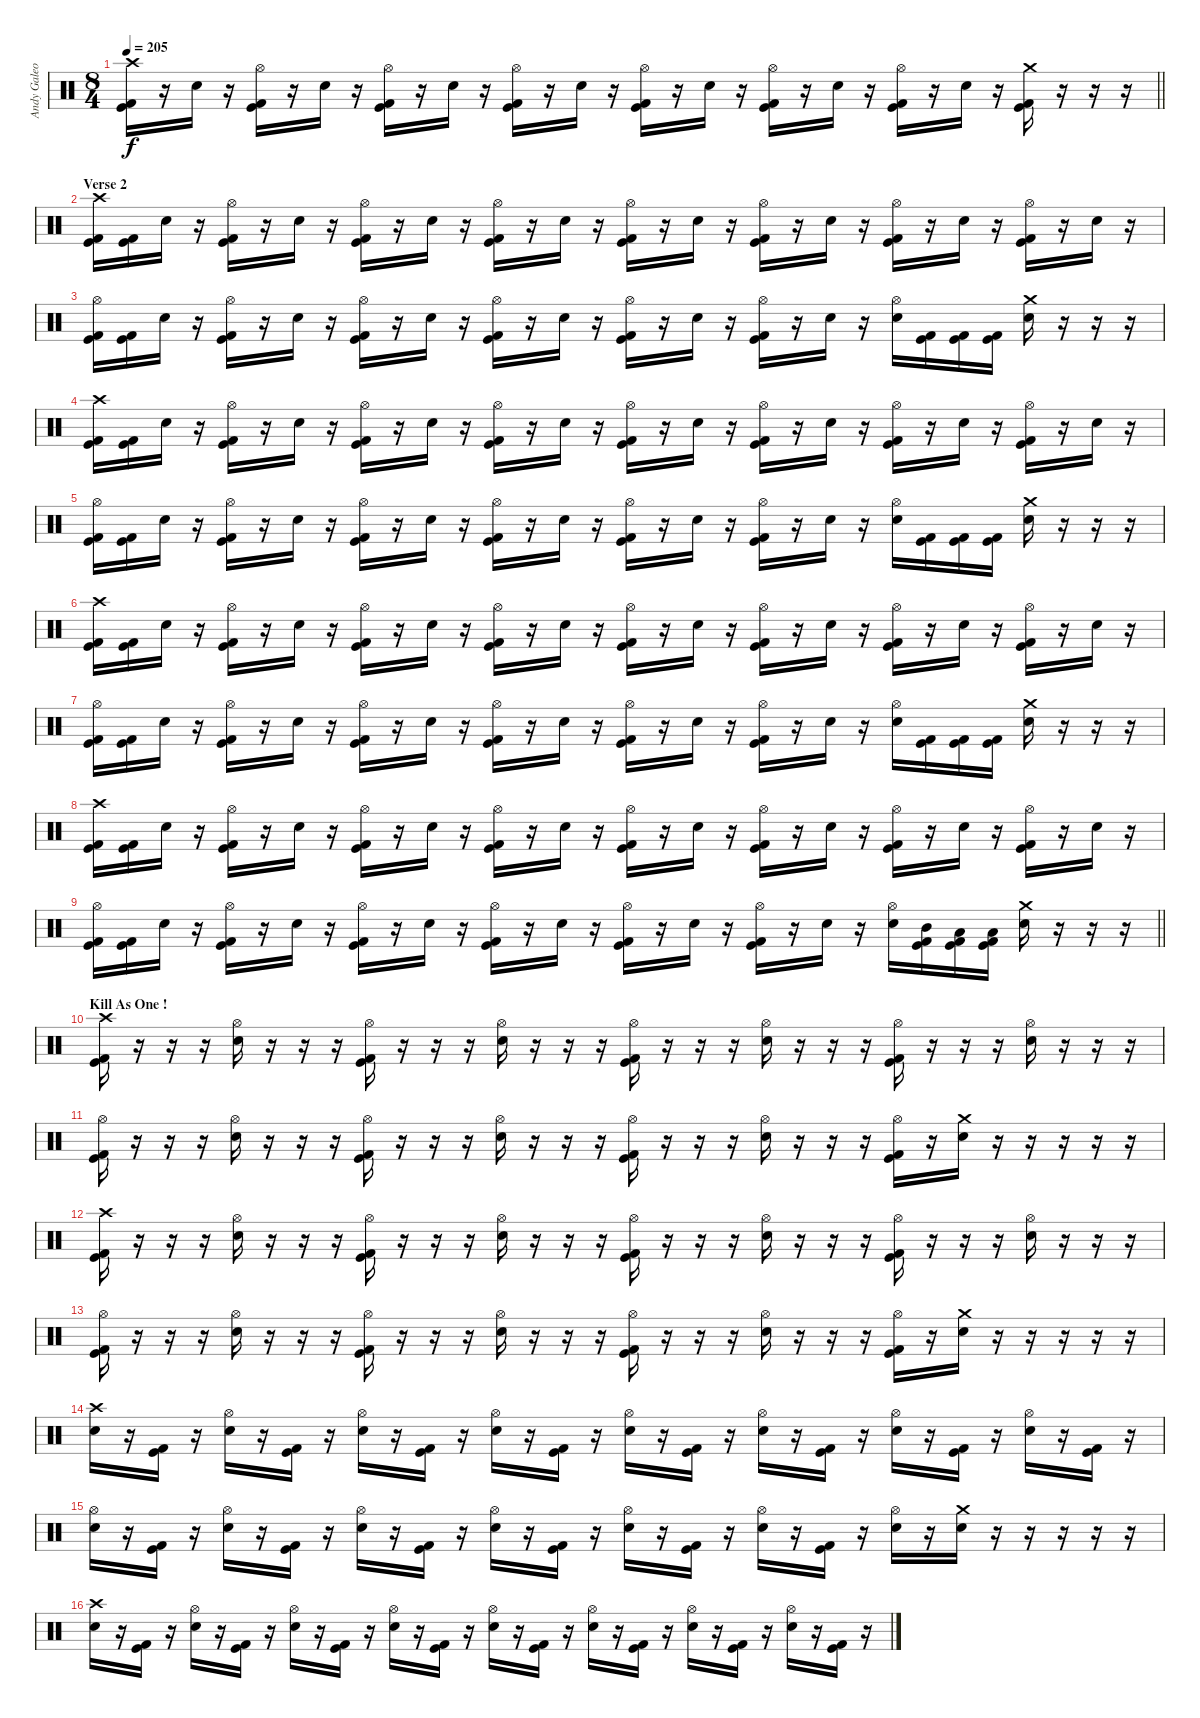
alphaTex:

\track ("Andy Galeon - Drums" "Andy Galeo") {instrument percussion}
\staff {score}
\articulation defaults
\ts (8 4)
\tempo 205
\clef neutral
\barLineRight lightlight
\ks c
("Crash high (hit)" "Kick (hit) 2" "Kick (hit)").16{dy f} r.16 "Electric Snare (hit)".16 r.16 ("Hi-Hat (open)" "Kick (hit) 2" "Kick (hit)").16 r.16 "Electric Snare (hit)".16 r.16 ("Hi-Hat (open)" "Kick (hit) 2" "Kick (hit)").16 r.16 "Electric Snare (hit)".16 r.16 ("Hi-Hat (open)" "Kick (hit) 2" "Kick (hit)").16 r.16 "Electric Snare (hit)".16 r.16 ("Hi-Hat (open)" "Kick (hit) 2" "Kick (hit)").16 r.16 "Electric Snare (hit)".16 r.16 ("Hi-Hat (open)" "Kick (hit) 2" "Kick (hit)").16 r.16 "Electric Snare (hit)".16 r.16 ("Hi-Hat (open)" "Kick (hit) 2" "Kick (hit)").16 r.16 "Electric Snare (hit)".16 r.16 ("Crash medium (hit)" "Kick (hit)" "Kick (hit) 2").16 r.16 r.16 r.16 |
\section ("" "Verse 2")
("Crash high (hit)" "Kick (hit) 2" "Kick (hit)").16 ("Kick (hit) 2" "Kick (hit)").16 "Electric Snare (hit)".16 r.16 ("Hi-Hat (open)" "Kick (hit) 2" "Kick (hit)").16 r.16 "Electric Snare (hit)".16 r.16 ("Hi-Hat (open)" "Kick (hit) 2" "Kick (hit)").16 r.16 "Electric Snare (hit)".16 r.16 ("Hi-Hat (open)" "Kick (hit) 2" "Kick (hit)").16 r.16 "Electric Snare (hit)".16 r.16 ("Hi-Hat (open)" "Kick (hit) 2" "Kick (hit)").16 r.16 "Electric Snare (hit)".16 r.16 ("Hi-Hat (open)" "Kick (hit) 2" "Kick (hit)").16 r.16 "Electric Snare (hit)".16 r.16 ("Hi-Hat (open)" "Kick (hit) 2" "Kick (hit)").16 r.16 "Electric Snare (hit)".16 r.16 ("Hi-Hat (open)" "Kick (hit)" "Kick (hit) 2").16 r.16 "Electric Snare (hit)".16 r.16 |
("Hi-Hat (open)" "Kick (hit) 2" "Kick (hit)").16 ("Kick (hit) 2" "Kick (hit)").16 "Electric Snare (hit)".16 r.16 ("Hi-Hat (open)" "Kick (hit) 2" "Kick (hit)").16 r.16 "Electric Snare (hit)".16 r.16 ("Hi-Hat (open)" "Kick (hit) 2" "Kick (hit)").16 r.16 "Electric Snare (hit)".16 r.16 ("Hi-Hat (open)" "Kick (hit) 2" "Kick (hit)").16 r.16 "Electric Snare (hit)".16 r.16 ("Hi-Hat (open)" "Kick (hit) 2" "Kick (hit)").16 r.16 "Electric Snare (hit)".16 r.16 ("Hi-Hat (open)" "Kick (hit) 2" "Kick (hit)").16 r.16 "Electric Snare (hit)".16 r.16 ("Hi-Hat (open)" "Electric Snare (hit)").16 ("Kick (hit) 2" "Kick (hit)").16 ("Kick (hit) 2" "Kick (hit)").16 ("Kick (hit) 2" "Kick (hit)").16 ("Crash medium (hit)" "Electric Snare (hit)").16 r.16 r.16 r.16 |
("Crash high (hit)" "Kick (hit) 2" "Kick (hit)").16 ("Kick (hit) 2" "Kick (hit)").16 "Electric Snare (hit)".16 r.16 ("Hi-Hat (open)" "Kick (hit) 2" "Kick (hit)").16 r.16 "Electric Snare (hit)".16 r.16 ("Hi-Hat (open)" "Kick (hit) 2" "Kick (hit)").16 r.16 "Electric Snare (hit)".16 r.16 ("Hi-Hat (open)" "Kick (hit) 2" "Kick (hit)").16 r.16 "Electric Snare (hit)".16 r.16 ("Hi-Hat (open)" "Kick (hit) 2" "Kick (hit)").16 r.16 "Electric Snare (hit)".16 r.16 ("Hi-Hat (open)" "Kick (hit) 2" "Kick (hit)").16 r.16 "Electric Snare (hit)".16 r.16 ("Hi-Hat (open)" "Kick (hit) 2" "Kick (hit)").16 r.16 "Electric Snare (hit)".16 r.16 ("Hi-Hat (open)" "Kick (hit)" "Kick (hit) 2").16 r.16 "Electric Snare (hit)".16 r.16 |
("Hi-Hat (open)" "Kick (hit) 2" "Kick (hit)").16 ("Kick (hit) 2" "Kick (hit)").16 "Electric Snare (hit)".16 r.16 ("Hi-Hat (open)" "Kick (hit) 2" "Kick (hit)").16 r.16 "Electric Snare (hit)".16 r.16 ("Hi-Hat (open)" "Kick (hit) 2" "Kick (hit)").16 r.16 "Electric Snare (hit)".16 r.16 ("Hi-Hat (open)" "Kick (hit) 2" "Kick (hit)").16 r.16 "Electric Snare (hit)".16 r.16 ("Hi-Hat (open)" "Kick (hit) 2" "Kick (hit)").16 r.16 "Electric Snare (hit)".16 r.16 ("Hi-Hat (open)" "Kick (hit) 2" "Kick (hit)").16 r.16 "Electric Snare (hit)".16 r.16 ("Hi-Hat (open)" "Electric Snare (hit)").16 ("Kick (hit) 2" "Kick (hit)").16 ("Kick (hit) 2" "Kick (hit)").16 ("Kick (hit) 2" "Kick (hit)").16 ("Crash medium (hit)" "Electric Snare (hit)").16 r.16 r.16 r.16 |
("Crash high (hit)" "Kick (hit) 2" "Kick (hit)").16 ("Kick (hit) 2" "Kick (hit)").16 "Electric Snare (hit)".16 r.16 ("Hi-Hat (open)" "Kick (hit) 2" "Kick (hit)").16 r.16 "Electric Snare (hit)".16 r.16 ("Hi-Hat (open)" "Kick (hit) 2" "Kick (hit)").16 r.16 "Electric Snare (hit)".16 r.16 ("Hi-Hat (open)" "Kick (hit) 2" "Kick (hit)").16 r.16 "Electric Snare (hit)".16 r.16 ("Hi-Hat (open)" "Kick (hit) 2" "Kick (hit)").16 r.16 "Electric Snare (hit)".16 r.16 ("Hi-Hat (open)" "Kick (hit) 2" "Kick (hit)").16 r.16 "Electric Snare (hit)".16 r.16 ("Hi-Hat (open)" "Kick (hit) 2" "Kick (hit)").16 r.16 "Electric Snare (hit)".16 r.16 ("Hi-Hat (open)" "Kick (hit)" "Kick (hit) 2").16 r.16 "Electric Snare (hit)".16 r.16 |
("Hi-Hat (open)" "Kick (hit) 2" "Kick (hit)").16 ("Kick (hit) 2" "Kick (hit)").16 "Electric Snare (hit)".16 r.16 ("Hi-Hat (open)" "Kick (hit) 2" "Kick (hit)").16 r.16 "Electric Snare (hit)".16 r.16 ("Hi-Hat (open)" "Kick (hit) 2" "Kick (hit)").16 r.16 "Electric Snare (hit)".16 r.16 ("Hi-Hat (open)" "Kick (hit) 2" "Kick (hit)").16 r.16 "Electric Snare (hit)".16 r.16 ("Hi-Hat (open)" "Kick (hit) 2" "Kick (hit)").16 r.16 "Electric Snare (hit)".16 r.16 ("Hi-Hat (open)" "Kick (hit) 2" "Kick (hit)").16 r.16 "Electric Snare (hit)".16 r.16 ("Hi-Hat (open)" "Electric Snare (hit)").16 ("Kick (hit) 2" "Kick (hit)").16 ("Kick (hit) 2" "Kick (hit)").16 ("Kick (hit) 2" "Kick (hit)").16 ("Crash medium (hit)" "Electric Snare (hit)").16 r.16 r.16 r.16 |
("Crash high (hit)" "Kick (hit) 2" "Kick (hit)").16 ("Kick (hit) 2" "Kick (hit)").16 "Electric Snare (hit)".16 r.16 ("Hi-Hat (open)" "Kick (hit) 2" "Kick (hit)").16 r.16 "Electric Snare (hit)".16 r.16 ("Hi-Hat (open)" "Kick (hit) 2" "Kick (hit)").16 r.16 "Electric Snare (hit)".16 r.16 ("Hi-Hat (open)" "Kick (hit) 2" "Kick (hit)").16 r.16 "Electric Snare (hit)".16 r.16 ("Hi-Hat (open)" "Kick (hit) 2" "Kick (hit)").16 r.16 "Electric Snare (hit)".16 r.16 ("Hi-Hat (open)" "Kick (hit) 2" "Kick (hit)").16 r.16 "Electric Snare (hit)".16 r.16 ("Hi-Hat (open)" "Kick (hit) 2" "Kick (hit)").16 r.16 "Electric Snare (hit)".16 r.16 ("Hi-Hat (open)" "Kick (hit)" "Kick (hit) 2").16 r.16 "Electric Snare (hit)".16 r.16 |
\barLineRight lightlight
("Hi-Hat (open)" "Kick (hit) 2" "Kick (hit)").16 ("Kick (hit) 2" "Kick (hit)").16 "Electric Snare (hit)".16 r.16 ("Hi-Hat (open)" "Kick (hit) 2" "Kick (hit)").16 r.16 "Electric Snare (hit)".16 r.16 ("Hi-Hat (open)" "Kick (hit) 2" "Kick (hit)").16 r.16 "Electric Snare (hit)".16 r.16 ("Hi-Hat (open)" "Kick (hit) 2" "Kick (hit)").16 r.16 "Electric Snare (hit)".16 r.16 ("Hi-Hat (open)" "Kick (hit) 2" "Kick (hit)").16 r.16 "Electric Snare (hit)".16 r.16 ("Hi-Hat (open)" "Kick (hit) 2" "Kick (hit)").16 r.16 "Electric Snare (hit)".16 r.16 ("Hi-Hat (open)" "Electric Snare (hit)").16 ("Mid Tom (hit)" "Kick (hit) 2" "Kick (hit)").16 ("Low Tom (hit)" "Kick (hit) 2" "Kick (hit)").16 ("Low Tom (hit)" "Kick (hit) 2" "Kick (hit)").16 ("Crash medium (hit)" "Electric Snare (hit)").16 r.16 r.16 r.16 |
\section ("" "Kill As One !")
("Crash high (hit)" "Kick (hit) 2" "Kick (hit)").16 r.16 r.16 r.16 ("Hi-Hat (open)" "Electric Snare (hit)").16 r.16 r.16 r.16 ("Hi-Hat (open)" "Kick (hit) 2" "Kick (hit)").16 r.16 r.16 r.16 ("Hi-Hat (open)" "Electric Snare (hit)").16 r.16 r.16 r.16 ("Hi-Hat (open)" "Kick (hit) 2" "Kick (hit)").16 r.16 r.16 r.16 ("Hi-Hat (open)" "Electric Snare (hit)").16 r.16 r.16 r.16 ("Hi-Hat (open)" "Kick (hit) 2" "Kick (hit)").16 r.16 r.16 r.16 ("Hi-Hat (open)" "Electric Snare (hit)").16 r.16 r.16 r.16 |
("Hi-Hat (open)" "Kick (hit) 2" "Kick (hit)").16 r.16 r.16 r.16 ("Hi-Hat (open)" "Electric Snare (hit)").16 r.16 r.16 r.16 ("Hi-Hat (open)" "Kick (hit) 2" "Kick (hit)").16 r.16 r.16 r.16 ("Hi-Hat (open)" "Electric Snare (hit)").16 r.16 r.16 r.16 ("Hi-Hat (open)" "Kick (hit) 2" "Kick (hit)").16 r.16 r.16 r.16 ("Hi-Hat (open)" "Electric Snare (hit)").16 r.16 r.16 r.16 ("Hi-Hat (open)" "Kick (hit) 2" "Kick (hit)").16 r.16 ("Crash medium (hit)" "Electric Snare (hit)").16 r.16 r.16 r.16 r.16 r.16 |
("Crash high (hit)" "Kick (hit) 2" "Kick (hit)").16 r.16 r.16 r.16 ("Hi-Hat (open)" "Electric Snare (hit)").16 r.16 r.16 r.16 ("Hi-Hat (open)" "Kick (hit) 2" "Kick (hit)").16 r.16 r.16 r.16 ("Hi-Hat (open)" "Electric Snare (hit)").16 r.16 r.16 r.16 ("Hi-Hat (open)" "Kick (hit) 2" "Kick (hit)").16 r.16 r.16 r.16 ("Hi-Hat (open)" "Electric Snare (hit)").16 r.16 r.16 r.16 ("Hi-Hat (open)" "Kick (hit) 2" "Kick (hit)").16 r.16 r.16 r.16 ("Hi-Hat (open)" "Electric Snare (hit)").16 r.16 r.16 r.16 |
("Hi-Hat (open)" "Kick (hit) 2" "Kick (hit)").16 r.16 r.16 r.16 ("Hi-Hat (open)" "Electric Snare (hit)").16 r.16 r.16 r.16 ("Hi-Hat (open)" "Kick (hit) 2" "Kick (hit)").16 r.16 r.16 r.16 ("Hi-Hat (open)" "Electric Snare (hit)").16 r.16 r.16 r.16 ("Hi-Hat (open)" "Kick (hit) 2" "Kick (hit)").16 r.16 r.16 r.16 ("Hi-Hat (open)" "Electric Snare (hit)").16 r.16 r.16 r.16 ("Hi-Hat (open)" "Kick (hit) 2" "Kick (hit)").16 r.16 ("Crash medium (hit)" "Electric Snare (hit)").16 r.16 r.16 r.16 r.16 r.16 |
("Crash high (hit)" "Electric Snare (hit)").16 r.16 ("Kick (hit) 2" "Kick (hit)").16 r.16 ("Hi-Hat (open)" "Electric Snare (hit)").16 r.16 ("Kick (hit) 2" "Kick (hit)").16 r.16 ("Hi-Hat (open)" "Electric Snare (hit)").16 r.16 ("Kick (hit) 2" "Kick (hit)").16 r.16 ("Hi-Hat (open)" "Electric Snare (hit)").16 r.16 ("Kick (hit) 2" "Kick (hit)").16 r.16 ("Hi-Hat (open)" "Electric Snare (hit)").16 r.16 ("Kick (hit) 2" "Kick (hit)").16 r.16 ("Hi-Hat (open)" "Electric Snare (hit)").16 r.16 ("Kick (hit) 2" "Kick (hit)").16 r.16 ("Hi-Hat (open)" "Electric Snare (hit)").16 r.16 ("Kick (hit) 2" "Kick (hit)").16 r.16 ("Hi-Hat (open)" "Electric Snare (hit)").16 r.16 ("Kick (hit) 2" "Kick (hit)").16 r.16 |
("Hi-Hat (open)" "Electric Snare (hit)").16 r.16 ("Kick (hit) 2" "Kick (hit)").16 r.16 ("Hi-Hat (open)" "Electric Snare (hit)").16 r.16 ("Kick (hit) 2" "Kick (hit)").16 r.16 ("Hi-Hat (open)" "Electric Snare (hit)").16 r.16 ("Kick (hit) 2" "Kick (hit)").16 r.16 ("Hi-Hat (open)" "Electric Snare (hit)").16 r.16 ("Kick (hit) 2" "Kick (hit)").16 r.16 ("Hi-Hat (open)" "Electric Snare (hit)").16 r.16 ("Kick (hit) 2" "Kick (hit)").16 r.16 ("Hi-Hat (open)" "Electric Snare (hit)").16 r.16 ("Kick (hit) 2" "Kick (hit)").16 r.16 ("Hi-Hat (open)" "Electric Snare (hit)").16 r.16 ("Crash medium (hit)" "Electric Snare (hit)").16 r.16 r.16 r.16 r.16 r.16 |
("Crash high (hit)" "Electric Snare (hit)").16 r.16 ("Kick (hit) 2" "Kick (hit)").16 r.16 ("Hi-Hat (open)" "Electric Snare (hit)").16 r.16 ("Kick (hit) 2" "Kick (hit)").16 r.16 ("Hi-Hat (open)" "Electric Snare (hit)").16 r.16 ("Kick (hit) 2" "Kick (hit)").16 r.16 ("Hi-Hat (open)" "Electric Snare (hit)").16 r.16 ("Kick (hit) 2" "Kick (hit)").16 r.16 ("Hi-Hat (open)" "Electric Snare (hit)").16 r.16 ("Kick (hit) 2" "Kick (hit)").16 r.16 ("Hi-Hat (open)" "Electric Snare (hit)").16 r.16 ("Kick (hit) 2" "Kick (hit)").16 r.16 ("Hi-Hat (open)" "Electric Snare (hit)").16 r.16 ("Kick (hit) 2" "Kick (hit)").16 r.16 ("Hi-Hat (open)" "Electric Snare (hit)").16 r.16 ("Kick (hit) 2" "Kick (hit)").16 r.16
